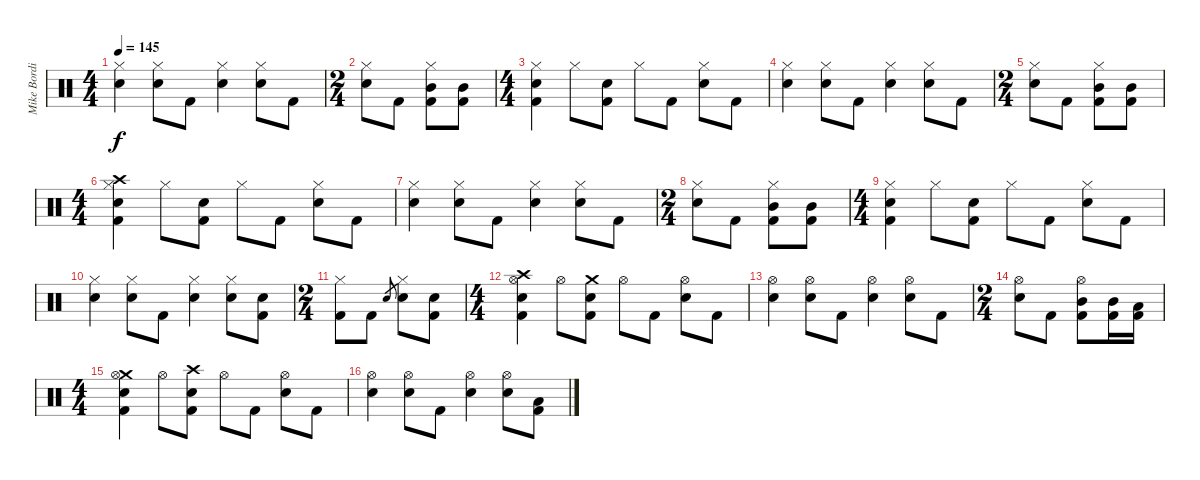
\track ("Mike Bordin" "Mike Bordi") {instrument percussion}
\staff {score}
\articulation defaults
\ts (4 4)
\tempo 145
\clef neutral
\ks c
("Hi-Hat (closed)" "Electric Snare (hit)").4{dy f} ("Hi-Hat (closed)" "Electric Snare (hit)").8 "Kick (hit) 2".8 ("Hi-Hat (closed)" "Electric Snare (hit)").4 ("Hi-Hat (closed)" "Electric Snare (hit)").8 "Kick (hit) 2".8 |
\ts (2 4)
("Hi-Hat (closed)" "Electric Snare (hit)").8 "Kick (hit) 2".8 ("Hi-Hat (closed)" "Mid Tom (hit)" "Kick (hit) 2").8 ("Mid Tom (hit)" "Kick (hit) 2").8 |
\ts (4 4)
("Hi-Hat (closed)" "Electric Snare (hit)" "Kick (hit) 2").4 "Hi-Hat (closed)".8 ("Electric Snare (hit)" "Kick (hit) 2").8 "Hi-Hat (closed)".8 "Kick (hit) 2".8 ("Hi-Hat (closed)" "Electric Snare (hit)").8 "Kick (hit) 2".8 |
("Hi-Hat (closed)" "Electric Snare (hit)").4 ("Hi-Hat (closed)" "Electric Snare (hit)").8 "Kick (hit) 2".8 ("Hi-Hat (closed)" "Electric Snare (hit)").4 ("Hi-Hat (closed)" "Electric Snare (hit)").8 "Kick (hit) 2".8 |
\ts (2 4)
("Hi-Hat (closed)" "Electric Snare (hit)").8 "Kick (hit) 2".8 ("Hi-Hat (closed)" "Mid Tom (hit)" "Kick (hit) 2").8 ("Mid Tom (hit)" "Kick (hit) 2").8 |
\ts (4 4)
("Crash high (hit)" "Hi-Hat (closed)" "Electric Snare (hit)" "Kick (hit) 2").4 "Hi-Hat (closed)".8 ("Electric Snare (hit)" "Kick (hit) 2").8 "Hi-Hat (closed)".8 "Kick (hit) 2".8 ("Hi-Hat (closed)" "Electric Snare (hit)").8 "Kick (hit) 2".8 |
("Hi-Hat (closed)" "Electric Snare (hit)").4 ("Hi-Hat (closed)" "Electric Snare (hit)").8 "Kick (hit) 2".8 ("Hi-Hat (closed)" "Electric Snare (hit)").4 ("Hi-Hat (closed)" "Electric Snare (hit)").8 "Kick (hit) 2".8 |
\ts (2 4)
("Hi-Hat (closed)" "Electric Snare (hit)").8 "Kick (hit) 2".8 ("Hi-Hat (closed)" "Mid Tom (hit)" "Kick (hit) 2").8 ("Mid Tom (hit)" "Kick (hit) 2").8 |
\ts (4 4)
("Hi-Hat (closed)" "Electric Snare (hit)" "Kick (hit) 2").4 "Hi-Hat (closed)".8 ("Electric Snare (hit)" "Kick (hit) 2").8 "Hi-Hat (closed)".8 "Kick (hit) 2".8 ("Hi-Hat (closed)" "Electric Snare (hit)").8 "Kick (hit) 2".8 |
("Hi-Hat (closed)" "Electric Snare (hit)").4 ("Hi-Hat (closed)" "Electric Snare (hit)").8 "Kick (hit) 2".8 ("Hi-Hat (closed)" "Electric Snare (hit)").4 ("Hi-Hat (closed)" "Electric Snare (hit)").8 ("Electric Snare (hit)" "Kick (hit) 2").8 |
\ts (2 4)
("Hi-Hat (closed)" "Kick (hit) 2").8 "Kick (hit) 2".8 "Electric Snare (hit)".8{gr} ("Hi-Hat (closed)" "Electric Snare (hit)").8 ("Electric Snare (hit)" "Kick (hit) 2").8 |
\ts (4 4)
("Crash high (hit)" "Hi-Hat (open)" "Electric Snare (hit)" "Kick (hit) 2").4 "Hi-Hat (open)".8 ("Crash medium (hit)" "Electric Snare (hit)" "Kick (hit) 2").8 "Hi-Hat (open)".8 "Kick (hit) 2".8 ("Hi-Hat (open)" "Electric Snare (hit)").8 "Kick (hit) 2".8 |
("Hi-Hat (open)" "Electric Snare (hit)").4 ("Hi-Hat (open)" "Electric Snare (hit)").8 "Kick (hit) 2".8 ("Hi-Hat (open)" "Electric Snare (hit)").4 ("Hi-Hat (open)" "Electric Snare (hit)").8 "Kick (hit) 2".8 |
\ts (2 4)
("Hi-Hat (open)" "Electric Snare (hit)").8 "Kick (hit) 2".8 ("Hi-Hat (open)" "Mid Tom (hit)" "Kick (hit) 2").8 ("Mid Tom (hit)" "Kick (hit) 2").16 ("Low Tom (hit)" "Kick (hit) 2").16 |
\ts (4 4)
("Crash medium (hit)" "Hi-Hat (open)" "Electric Snare (hit)" "Kick (hit) 2").4 "Hi-Hat (open)".8 ("Crash high (hit)" "Electric Snare (hit)" "Kick (hit) 2").8 "Hi-Hat (open)".8 "Kick (hit) 2".8 ("Hi-Hat (open)" "Electric Snare (hit)").8 "Kick (hit) 2".8 |
("Hi-Hat (open)" "Electric Snare (hit)").4 ("Hi-Hat (open)" "Electric Snare (hit)").8 "Kick (hit) 2".8 ("Hi-Hat (open)" "Electric Snare (hit)").4 ("Hi-Hat (open)" "Electric Snare (hit)").8 ("Low Tom (hit)" "Kick (hit) 2").8
